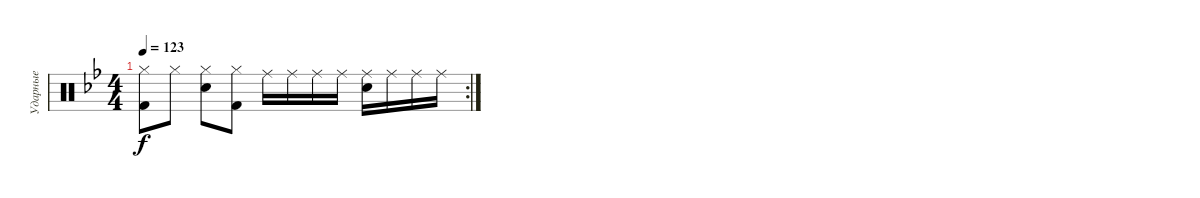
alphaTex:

\track ("Ударные" "Ударные") {instrument percussion}
\staff {score}
\articulation defaults
\rc 2
\ts (4 4)
\tempo 123
\clef neutral
\ks gminor
("Hi-Hat (closed)" "Kick (hit) 2").8{dy f} "Hi-Hat (closed)".8 ("Hi-Hat (closed)" "Snare (hit) 2").8 ("Hi-Hat (closed)" "Kick (hit) 2").8 "Ride (middle)".16 "Ride (middle)".16 "Ride (middle)".16 "Ride (middle)".16 ("Ride (middle)" "Snare (hit) 2").16 "Ride (middle)".16 "Ride (middle)".16 "Ride (middle)".16
